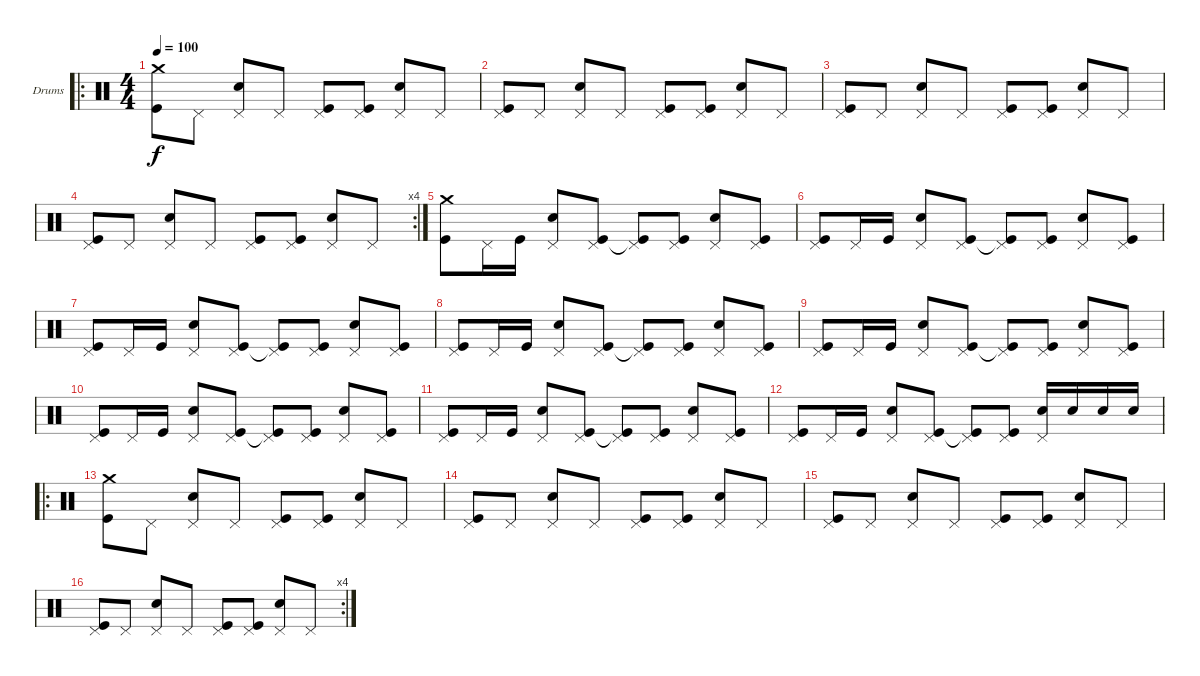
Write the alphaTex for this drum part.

\defaultSystemsLayout 4
\bracketExtendMode groupsimilarinstruments
\firstSystemTrackNameOrientation horizontal
\otherSystemsTrackNameOrientation horizontal
\track ("Drumkit" "Drums") {instrument percussion}
\staff {score}
\articulation defaults
\ro
\ts (4 4)
\tempo 100
\clef neutral
\ks c
("Crash medium (hit)" "Kick (hit)").8{dy f} "Pedal Hi-Hat (hit)".8 ("Pedal Hi-Hat (hit)" "Snare (hit) 2").8 "Pedal Hi-Hat (hit)".8 ("Pedal Hi-Hat (hit)" "Kick (hit)").8 ("Pedal Hi-Hat (hit)" "Kick (hit)").8 ("Pedal Hi-Hat (hit)" "Snare (hit) 2").8 "Pedal Hi-Hat (hit)".8 |
("Pedal Hi-Hat (hit)" "Kick (hit)").8 "Pedal Hi-Hat (hit)".8 ("Pedal Hi-Hat (hit)" "Snare (hit) 2").8 "Pedal Hi-Hat (hit)".8 ("Pedal Hi-Hat (hit)" "Kick (hit)").8 ("Pedal Hi-Hat (hit)" "Kick (hit)").8 ("Pedal Hi-Hat (hit)" "Snare (hit) 2").8 "Pedal Hi-Hat (hit)".8 |
("Pedal Hi-Hat (hit)" "Kick (hit)").8 "Pedal Hi-Hat (hit)".8 ("Pedal Hi-Hat (hit)" "Snare (hit) 2").8 "Pedal Hi-Hat (hit)".8 ("Pedal Hi-Hat (hit)" "Kick (hit)").8 ("Pedal Hi-Hat (hit)" "Kick (hit)").8 ("Pedal Hi-Hat (hit)" "Snare (hit) 2").8 "Pedal Hi-Hat (hit)".8 |
\rc 4
("Pedal Hi-Hat (hit)" "Kick (hit)").8 "Pedal Hi-Hat (hit)".8 ("Pedal Hi-Hat (hit)" "Snare (hit) 2").8 "Pedal Hi-Hat (hit)".8 ("Pedal Hi-Hat (hit)" "Kick (hit)").8 ("Pedal Hi-Hat (hit)" "Kick (hit)").8 ("Pedal Hi-Hat (hit)" "Snare (hit) 2").8 "Pedal Hi-Hat (hit)".8 |
("Crash medium (hit)" "Kick (hit)").8 "Pedal Hi-Hat (hit)".16 "Kick (hit)".16 ("Pedal Hi-Hat (hit)" "Snare (hit) 2").8 ("Pedal Hi-Hat (hit)" "Kick (hit)").8 ("Pedal Hi-Hat (hit)" "Kick (hit)"{t}).8 ("Pedal Hi-Hat (hit)" "Kick (hit)").8 ("Pedal Hi-Hat (hit)" "Snare (hit) 2").8 ("Pedal Hi-Hat (hit)" "Kick (hit)").8 |
("Pedal Hi-Hat (hit)" "Kick (hit)").8 "Pedal Hi-Hat (hit)".16 "Kick (hit)".16 ("Pedal Hi-Hat (hit)" "Snare (hit) 2").8 ("Pedal Hi-Hat (hit)" "Kick (hit)").8 ("Pedal Hi-Hat (hit)" "Kick (hit)"{t}).8 ("Pedal Hi-Hat (hit)" "Kick (hit)").8 ("Pedal Hi-Hat (hit)" "Snare (hit) 2").8 ("Pedal Hi-Hat (hit)" "Kick (hit)").8 |
("Pedal Hi-Hat (hit)" "Kick (hit)").8 "Pedal Hi-Hat (hit)".16 "Kick (hit)".16 ("Pedal Hi-Hat (hit)" "Snare (hit) 2").8 ("Pedal Hi-Hat (hit)" "Kick (hit)").8 ("Pedal Hi-Hat (hit)" "Kick (hit)"{t}).8 ("Pedal Hi-Hat (hit)" "Kick (hit)").8 ("Pedal Hi-Hat (hit)" "Snare (hit) 2").8 ("Pedal Hi-Hat (hit)" "Kick (hit)").8 |
("Pedal Hi-Hat (hit)" "Kick (hit)").8 "Pedal Hi-Hat (hit)".16 "Kick (hit)".16 ("Pedal Hi-Hat (hit)" "Snare (hit) 2").8 ("Pedal Hi-Hat (hit)" "Kick (hit)").8 ("Pedal Hi-Hat (hit)" "Kick (hit)"{t}).8 ("Pedal Hi-Hat (hit)" "Kick (hit)").8 ("Pedal Hi-Hat (hit)" "Snare (hit) 2").8 ("Pedal Hi-Hat (hit)" "Kick (hit)").8 |
("Pedal Hi-Hat (hit)" "Kick (hit)").8 "Pedal Hi-Hat (hit)".16 "Kick (hit)".16 ("Pedal Hi-Hat (hit)" "Snare (hit) 2").8 ("Pedal Hi-Hat (hit)" "Kick (hit)").8 ("Pedal Hi-Hat (hit)" "Kick (hit)"{t}).8 ("Pedal Hi-Hat (hit)" "Kick (hit)").8 ("Pedal Hi-Hat (hit)" "Snare (hit) 2").8 ("Pedal Hi-Hat (hit)" "Kick (hit)").8 |
("Pedal Hi-Hat (hit)" "Kick (hit)").8 "Pedal Hi-Hat (hit)".16 "Kick (hit)".16 ("Pedal Hi-Hat (hit)" "Snare (hit) 2").8 ("Pedal Hi-Hat (hit)" "Kick (hit)").8 ("Pedal Hi-Hat (hit)" "Kick (hit)"{t}).8 ("Pedal Hi-Hat (hit)" "Kick (hit)").8 ("Pedal Hi-Hat (hit)" "Snare (hit) 2").8 ("Pedal Hi-Hat (hit)" "Kick (hit)").8 |
("Pedal Hi-Hat (hit)" "Kick (hit)").8 "Pedal Hi-Hat (hit)".16 "Kick (hit)".16 ("Pedal Hi-Hat (hit)" "Snare (hit) 2").8 ("Pedal Hi-Hat (hit)" "Kick (hit)").8 ("Pedal Hi-Hat (hit)" "Kick (hit)"{t}).8 ("Pedal Hi-Hat (hit)" "Kick (hit)").8 ("Pedal Hi-Hat (hit)" "Snare (hit) 2").8 ("Pedal Hi-Hat (hit)" "Kick (hit)").8 |
("Pedal Hi-Hat (hit)" "Kick (hit)").8 "Pedal Hi-Hat (hit)".16 "Kick (hit)".16 ("Pedal Hi-Hat (hit)" "Snare (hit) 2").8 ("Pedal Hi-Hat (hit)" "Kick (hit)").8 ("Pedal Hi-Hat (hit)" "Kick (hit)"{t}).8 ("Pedal Hi-Hat (hit)" "Kick (hit)").8 ("Pedal Hi-Hat (hit)" "Snare (hit) 2").16 "Snare (hit) 2".16 "Snare (hit) 2".16 "Snare (hit) 2".16 |
\ro
("Crash medium (hit)" "Kick (hit)").8 "Pedal Hi-Hat (hit)".8 ("Pedal Hi-Hat (hit)" "Snare (hit) 2").8 "Pedal Hi-Hat (hit)".8 ("Pedal Hi-Hat (hit)" "Kick (hit)").8 ("Pedal Hi-Hat (hit)" "Kick (hit)").8 ("Pedal Hi-Hat (hit)" "Snare (hit) 2").8 "Pedal Hi-Hat (hit)".8 |
("Pedal Hi-Hat (hit)" "Kick (hit)").8 "Pedal Hi-Hat (hit)".8 ("Pedal Hi-Hat (hit)" "Snare (hit) 2").8 "Pedal Hi-Hat (hit)".8 ("Pedal Hi-Hat (hit)" "Kick (hit)").8 ("Pedal Hi-Hat (hit)" "Kick (hit)").8 ("Pedal Hi-Hat (hit)" "Snare (hit) 2").8 "Pedal Hi-Hat (hit)".8 |
("Pedal Hi-Hat (hit)" "Kick (hit)").8 "Pedal Hi-Hat (hit)".8 ("Pedal Hi-Hat (hit)" "Snare (hit) 2").8 "Pedal Hi-Hat (hit)".8 ("Pedal Hi-Hat (hit)" "Kick (hit)").8 ("Pedal Hi-Hat (hit)" "Kick (hit)").8 ("Pedal Hi-Hat (hit)" "Snare (hit) 2").8 "Pedal Hi-Hat (hit)".8 |
\rc 4
("Pedal Hi-Hat (hit)" "Kick (hit)").8 "Pedal Hi-Hat (hit)".8 ("Pedal Hi-Hat (hit)" "Snare (hit) 2").8 "Pedal Hi-Hat (hit)".8 ("Pedal Hi-Hat (hit)" "Kick (hit)").8 ("Pedal Hi-Hat (hit)" "Kick (hit)").8 ("Pedal Hi-Hat (hit)" "Snare (hit) 2").8 "Pedal Hi-Hat (hit)".8
